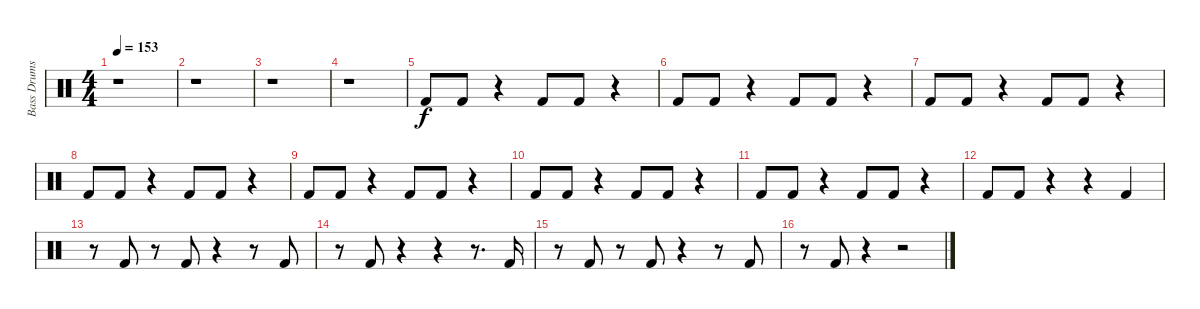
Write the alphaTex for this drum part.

\track ("Bass Drums" "Bass Drums") {instrument percussion}
\staff {score}
\articulation defaults
\ts (4 4)
\tempo 153
\clef neutral
\ks c
r.1{dy f} |
r.1 |
r.1 |
r.1 |
"Kick (hit) 2".8 "Kick (hit) 2".8 r.4 "Kick (hit) 2".8 "Kick (hit) 2".8 r.4 |
"Kick (hit) 2".8 "Kick (hit) 2".8 r.4 "Kick (hit) 2".8 "Kick (hit) 2".8 r.4 |
"Kick (hit) 2".8 "Kick (hit) 2".8 r.4 "Kick (hit) 2".8 "Kick (hit) 2".8 r.4 |
"Kick (hit) 2".8 "Kick (hit) 2".8 r.4 "Kick (hit) 2".8 "Kick (hit) 2".8 r.4 |
"Kick (hit) 2".8 "Kick (hit) 2".8 r.4 "Kick (hit) 2".8 "Kick (hit) 2".8 r.4 |
"Kick (hit) 2".8 "Kick (hit) 2".8 r.4 "Kick (hit) 2".8 "Kick (hit) 2".8 r.4 |
"Kick (hit) 2".8 "Kick (hit) 2".8 r.4 "Kick (hit) 2".8 "Kick (hit) 2".8 r.4 |
"Kick (hit) 2".8 "Kick (hit) 2".8 r.4 r.4 "Kick (hit) 2".4 |
r.8 "Kick (hit) 2".8 r.8 "Kick (hit) 2".8 r.4 r.8 "Kick (hit) 2".8 |
r.8 "Kick (hit) 2".8 r.4 r.4 r.8{d} "Kick (hit) 2".16 |
r.8 "Kick (hit) 2".8 r.8 "Kick (hit) 2".8 r.4 r.8 "Kick (hit) 2".8 |
r.8 "Kick (hit) 2".8 r.4 r.2
